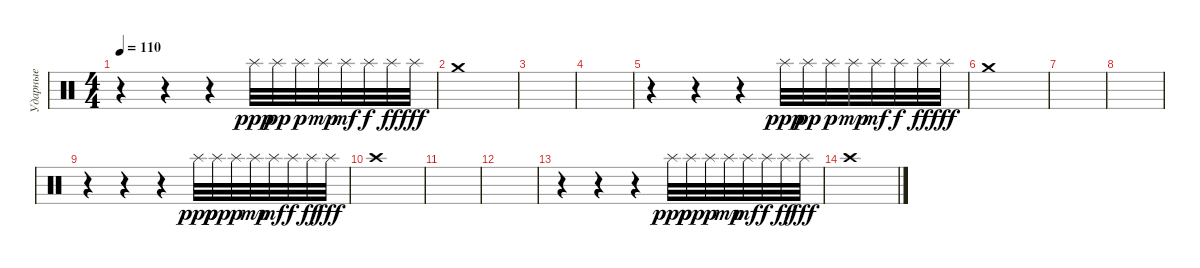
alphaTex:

\track ("Ударные" "Ударные") {instrument percussion}
\staff {score}
\articulation defaults
\ts (4 4)
\tempo 110
\clef neutral
\ks c
r.4{dy fff} r.4 r.4 "Splash (hit)".32{dy ppp} "Splash (hit)".32{dy pp} "Splash (hit)".32{dy p} "Splash (hit)".32{dy mp} "Splash (hit)".32{dy mf} "Splash (hit)".32{dy f} "Splash (hit)".32{dy ff} "Splash (hit)".32{dy fff} |
"Crash medium (hit)".1 |
|
|
r.4 r.4 r.4 "Splash (hit)".32{dy ppp} "Splash (hit)".32{dy pp} "Splash (hit)".32{dy p} "Splash (hit)".32{dy mp} "Splash (hit)".32{dy mf} "Splash (hit)".32{dy f} "Splash (hit)".32{dy ff} "Splash (hit)".32{dy fff} |
"Crash medium (hit)".1 |
|
|
r.4 r.4 r.4 "Splash (hit)".32{dy ppp} "Splash (hit)".32{dy pp} "Splash (hit)".32{dy p} "Splash (hit)".32{dy mp} "Splash (hit)".32{dy mf} "Splash (hit)".32{dy f} "Splash (hit)".32{dy ff} "Splash (hit)".32{dy fff} |
"Crash high (hit)".1 |
|
|
r.4 r.4 r.4 "Splash (hit)".32{dy ppp} "Splash (hit)".32{dy pp} "Splash (hit)".32{dy p} "Splash (hit)".32{dy mp} "Splash (hit)".32{dy mf} "Splash (hit)".32{dy f} "Splash (hit)".32{dy ff} "Splash (hit)".32{dy fff} |
"Crash high (hit)".1
